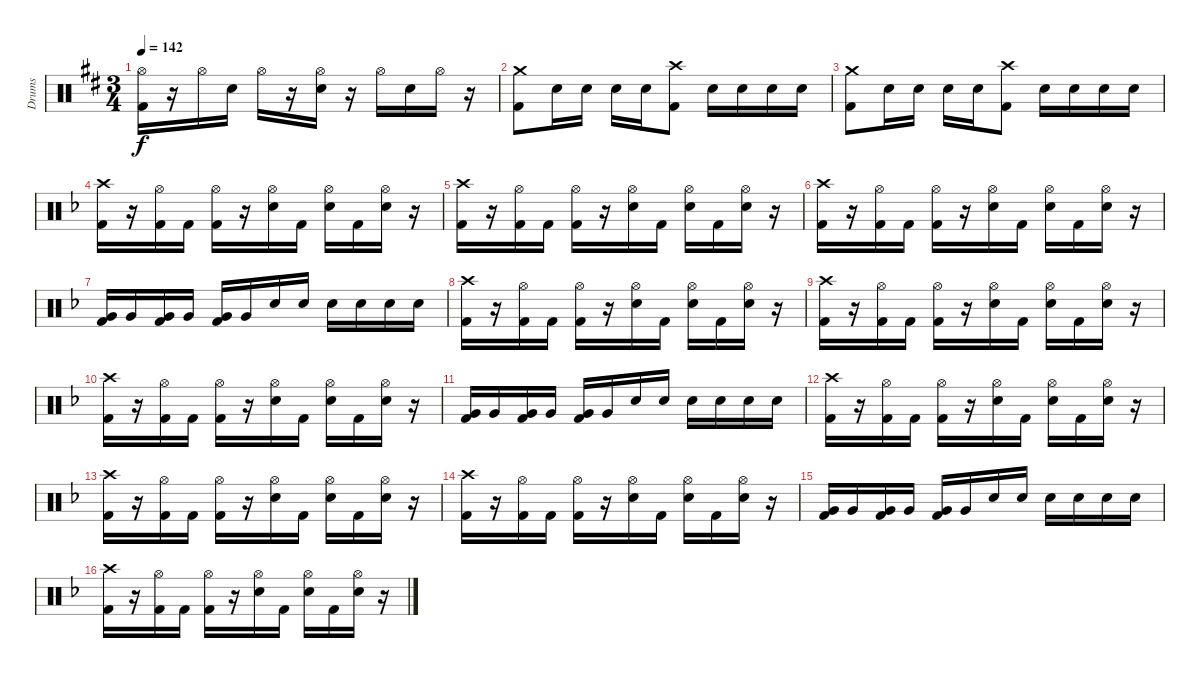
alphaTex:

\track ("Drums" "Drums") {instrument percussion}
\staff {score}
\articulation defaults
\ts (3 4)
\tempo 142
\clef neutral
\ks d
("Hi-Hat (open)" "Kick (hit) 2").16{dy f} r.16 "Hi-Hat (open)".16 "Electric Snare (hit)".16 "Hi-Hat (open)".16 r.16 ("Hi-Hat (open)" "Electric Snare (hit)").16 r.16 "Hi-Hat (open)".16 "Electric Snare (hit)".16 "Hi-Hat (open)".16 r.16 |
("Crash medium (hit)" "Kick (hit) 2").8 "Electric Snare (hit)".16 "Electric Snare (hit)".16 "Electric Snare (hit)".16 "Electric Snare (hit)".16 ("Crash high (hit)" "Kick (hit) 2").8 "Electric Snare (hit)".16 "Electric Snare (hit)".16 "Electric Snare (hit)".16 "Electric Snare (hit)".16 |
("Crash medium (hit)" "Kick (hit) 2").8 "Electric Snare (hit)".16 "Electric Snare (hit)".16 "Electric Snare (hit)".16 "Electric Snare (hit)".16 ("Crash high (hit)" "Kick (hit) 2").8 "Electric Snare (hit)".16 "Electric Snare (hit)".16 "Electric Snare (hit)".16 "Electric Snare (hit)".16 |
\ks dminor
("Crash high (hit)" "Kick (hit) 2").16 r.16 ("Hi-Hat (open)" "Kick (hit) 2").16 "Kick (hit) 2".16 ("Hi-Hat (open)" "Kick (hit) 2").16 r.16 ("Hi-Hat (open)" "Electric Snare (hit)").16 "Kick (hit) 2".16 ("Hi-Hat (open)" "Electric Snare (hit)").16 "Kick (hit) 2".16 ("Hi-Hat (open)" "Electric Snare (hit)").16 r.16 |
("Crash high (hit)" "Kick (hit) 2").16 r.16 ("Hi-Hat (open)" "Kick (hit) 2").16 "Kick (hit) 2".16 ("Hi-Hat (open)" "Kick (hit) 2").16 r.16 ("Hi-Hat (open)" "Electric Snare (hit)").16 "Kick (hit) 2".16 ("Hi-Hat (open)" "Electric Snare (hit)").16 "Kick (hit) 2".16 ("Hi-Hat (open)" "Electric Snare (hit)").16 r.16 |
("Crash high (hit)" "Kick (hit) 2").16 r.16 ("Hi-Hat (open)" "Kick (hit) 2").16 "Kick (hit) 2".16 ("Hi-Hat (open)" "Kick (hit) 2").16 r.16 ("Hi-Hat (open)" "Electric Snare (hit)").16 "Kick (hit) 2".16 ("Hi-Hat (open)" "Electric Snare (hit)").16 "Kick (hit) 2".16 ("Hi-Hat (open)" "Electric Snare (hit)").16 r.16 |
("Very Low Tom (hit)" "Kick (hit) 2").16 "Very Low Tom (hit)".16 ("Very Low Tom (hit)" "Kick (hit) 2").16 "Very Low Tom (hit)".16 ("Very Low Tom (hit)" "Kick (hit) 2").16 "Very Low Tom (hit)".16 "Electric Snare (hit)".16 "Electric Snare (hit)".16 "Electric Snare (hit)".16 "Electric Snare (hit)".16 "Electric Snare (hit)".16 "Electric Snare (hit)".16 |
("Crash high (hit)" "Kick (hit) 2").16 r.16 ("Hi-Hat (open)" "Kick (hit) 2").16 "Kick (hit) 2".16 ("Hi-Hat (open)" "Kick (hit) 2").16 r.16 ("Hi-Hat (open)" "Electric Snare (hit)").16 "Kick (hit) 2".16 ("Hi-Hat (open)" "Electric Snare (hit)").16 "Kick (hit) 2".16 ("Hi-Hat (open)" "Electric Snare (hit)").16 r.16 |
("Crash high (hit)" "Kick (hit) 2").16 r.16 ("Hi-Hat (open)" "Kick (hit) 2").16 "Kick (hit) 2".16 ("Hi-Hat (open)" "Kick (hit) 2").16 r.16 ("Hi-Hat (open)" "Electric Snare (hit)").16 "Kick (hit) 2".16 ("Hi-Hat (open)" "Electric Snare (hit)").16 "Kick (hit) 2".16 ("Hi-Hat (open)" "Electric Snare (hit)").16 r.16 |
("Crash high (hit)" "Kick (hit) 2").16 r.16 ("Hi-Hat (open)" "Kick (hit) 2").16 "Kick (hit) 2".16 ("Hi-Hat (open)" "Kick (hit) 2").16 r.16 ("Hi-Hat (open)" "Electric Snare (hit)").16 "Kick (hit) 2".16 ("Hi-Hat (open)" "Electric Snare (hit)").16 "Kick (hit) 2".16 ("Hi-Hat (open)" "Electric Snare (hit)").16 r.16 |
("Very Low Tom (hit)" "Kick (hit) 2").16 "Very Low Tom (hit)".16 ("Very Low Tom (hit)" "Kick (hit) 2").16 "Very Low Tom (hit)".16 ("Very Low Tom (hit)" "Kick (hit) 2").16 "Very Low Tom (hit)".16 "Electric Snare (hit)".16 "Electric Snare (hit)".16 "Electric Snare (hit)".16 "Electric Snare (hit)".16 "Electric Snare (hit)".16 "Electric Snare (hit)".16 |
("Crash high (hit)" "Kick (hit) 2").16 r.16 ("Hi-Hat (open)" "Kick (hit) 2").16 "Kick (hit) 2".16 ("Hi-Hat (open)" "Kick (hit) 2").16 r.16 ("Hi-Hat (open)" "Electric Snare (hit)").16 "Kick (hit) 2".16 ("Hi-Hat (open)" "Electric Snare (hit)").16 "Kick (hit) 2".16 ("Hi-Hat (open)" "Electric Snare (hit)").16 r.16 |
("Crash high (hit)" "Kick (hit) 2").16 r.16 ("Hi-Hat (open)" "Kick (hit) 2").16 "Kick (hit) 2".16 ("Hi-Hat (open)" "Kick (hit) 2").16 r.16 ("Hi-Hat (open)" "Electric Snare (hit)").16 "Kick (hit) 2".16 ("Hi-Hat (open)" "Electric Snare (hit)").16 "Kick (hit) 2".16 ("Hi-Hat (open)" "Electric Snare (hit)").16 r.16 |
("Crash high (hit)" "Kick (hit) 2").16 r.16 ("Hi-Hat (open)" "Kick (hit) 2").16 "Kick (hit) 2".16 ("Hi-Hat (open)" "Kick (hit) 2").16 r.16 ("Hi-Hat (open)" "Electric Snare (hit)").16 "Kick (hit) 2".16 ("Hi-Hat (open)" "Electric Snare (hit)").16 "Kick (hit) 2".16 ("Hi-Hat (open)" "Electric Snare (hit)").16 r.16 |
("Very Low Tom (hit)" "Kick (hit) 2").16 "Very Low Tom (hit)".16 ("Very Low Tom (hit)" "Kick (hit) 2").16 "Very Low Tom (hit)".16 ("Very Low Tom (hit)" "Kick (hit) 2").16 "Very Low Tom (hit)".16 "Electric Snare (hit)".16 "Electric Snare (hit)".16 "Electric Snare (hit)".16 "Electric Snare (hit)".16 "Electric Snare (hit)".16 "Electric Snare (hit)".16 |
("Crash high (hit)" "Kick (hit) 2").16 r.16 ("Hi-Hat (open)" "Kick (hit) 2").16 "Kick (hit) 2".16 ("Hi-Hat (open)" "Kick (hit) 2").16 r.16 ("Hi-Hat (open)" "Electric Snare (hit)").16 "Kick (hit) 2".16 ("Hi-Hat (open)" "Electric Snare (hit)").16 "Kick (hit) 2".16 ("Hi-Hat (open)" "Electric Snare (hit)").16 r.16
